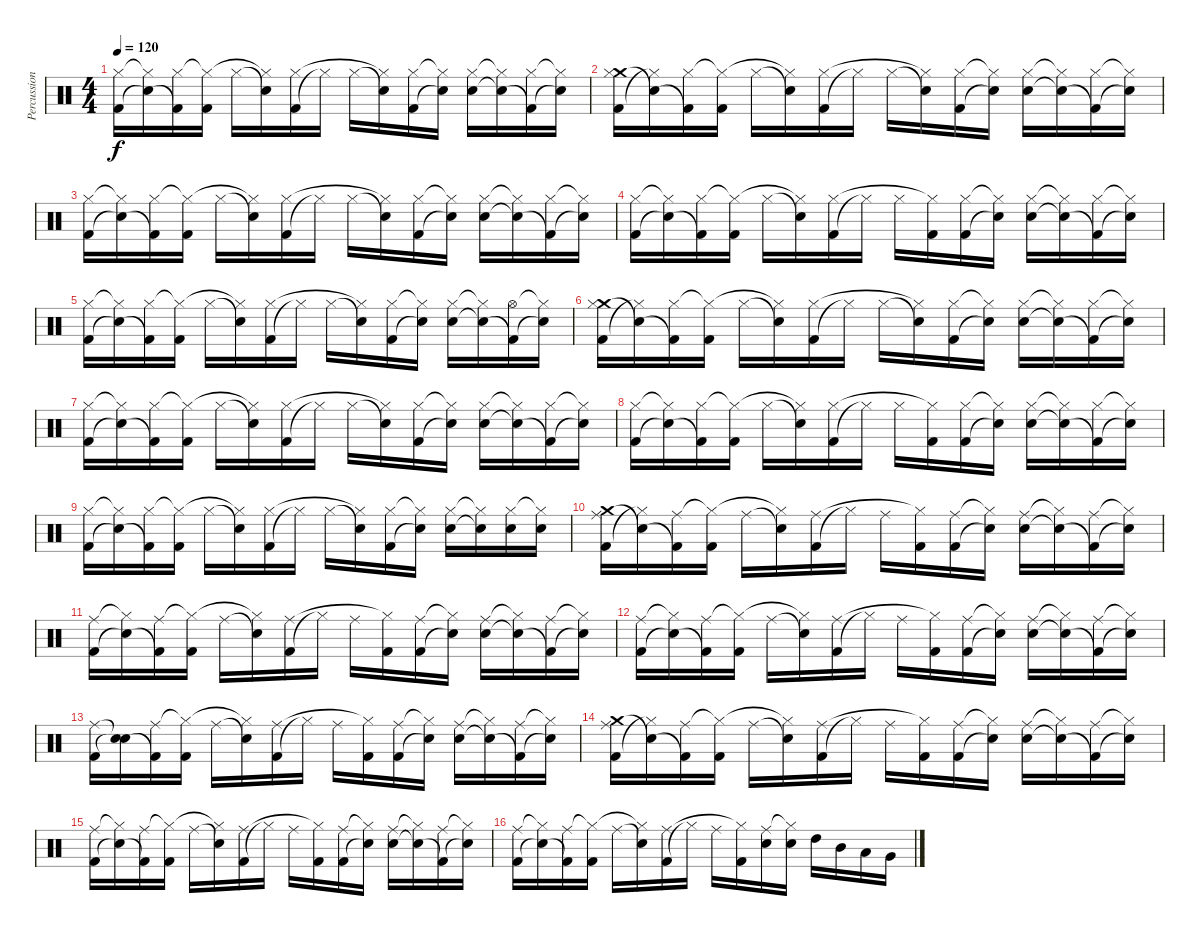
\track ("Percussions" "Percussion") {instrument percussion}
\staff {score}
\articulation defaults
\ts (4 4)
\tempo 120
\clef neutral
\ks c
("Kick (hit) 2" "Hi-Hat (closed)").16{dy f} ("Snare (hit)"{t} "Hi-Hat (closed)"{t}).16 ("Kick (hit) 2"{t} "Hi-Hat (closed)").16 ("Kick (hit) 2" "Hi-Hat (closed)"{t}).16 "Hi-Hat (closed)".16 ("Snare (hit)"{t} "Hi-Hat (closed)"{t}).16 ("Kick (hit) 2" "Hi-Hat (closed)").16 "Hi-Hat (closed)"{t}.16 "Hi-Hat (closed)".16 ("Snare (hit)"{t} "Hi-Hat (closed)"{t}).16 ("Kick (hit) 2" "Hi-Hat (closed)").16 ("Snare (hit)"{t} "Hi-Hat (closed)"{t}).16 ("Electric Snare (hit)" "Hi-Hat (closed)").16 ("Snare (hit)"{t} "Hi-Hat (closed)"{t}).16 ("Kick (hit) 2"{t} "Hi-Hat (closed)").16 ("Snare (hit)"{t} "Hi-Hat (closed)"{t}).16 |
("Crash medium (hit)" "Kick (hit) 2" "Hi-Hat (closed)").16 ("Snare (hit)"{t} "Hi-Hat (closed)"{t}).16 ("Kick (hit) 2"{t} "Hi-Hat (closed)").16 ("Kick (hit) 2" "Hi-Hat (closed)"{t}).16 "Hi-Hat (closed)".16 ("Snare (hit)"{t} "Hi-Hat (closed)"{t}).16 ("Kick (hit) 2" "Hi-Hat (closed)").16 "Hi-Hat (closed)"{t}.16 "Hi-Hat (closed)".16 ("Snare (hit)"{t} "Hi-Hat (closed)"{t}).16 ("Kick (hit) 2" "Hi-Hat (closed)").16 ("Snare (hit)"{t} "Hi-Hat (closed)"{t}).16 ("Electric Snare (hit)" "Hi-Hat (closed)").16 ("Snare (hit)"{t} "Hi-Hat (closed)"{t}).16 ("Kick (hit) 2"{t} "Hi-Hat (closed)").16 ("Snare (hit)"{t} "Hi-Hat (closed)"{t}).16 |
("Kick (hit) 2" "Hi-Hat (closed)").16 ("Snare (hit)"{t} "Hi-Hat (closed)"{t}).16 ("Kick (hit) 2"{t} "Hi-Hat (closed)").16 ("Kick (hit) 2" "Hi-Hat (closed)"{t}).16 "Hi-Hat (closed)".16 ("Snare (hit)"{t} "Hi-Hat (closed)"{t}).16 ("Kick (hit) 2" "Hi-Hat (closed)").16 "Hi-Hat (closed)"{t}.16 "Hi-Hat (closed)".16 ("Snare (hit)"{t} "Hi-Hat (closed)"{t}).16 ("Kick (hit) 2" "Hi-Hat (closed)").16 ("Snare (hit)"{t} "Hi-Hat (closed)"{t}).16 ("Electric Snare (hit)" "Hi-Hat (closed)").16 ("Snare (hit)"{t} "Hi-Hat (closed)"{t}).16 ("Kick (hit) 2"{t} "Hi-Hat (closed)").16 ("Snare (hit)"{t} "Hi-Hat (closed)"{t}).16 |
("Kick (hit) 2" "Hi-Hat (closed)").16 ("Snare (hit)"{t} "Hi-Hat (closed)"{t}).16 ("Kick (hit) 2"{t} "Hi-Hat (closed)").16 ("Kick (hit) 2" "Hi-Hat (closed)"{t}).16 "Hi-Hat (closed)".16 ("Snare (hit)"{t} "Hi-Hat (closed)"{t}).16 ("Kick (hit) 2" "Hi-Hat (closed)").16 "Hi-Hat (closed)"{t}.16 "Hi-Hat (closed)".16 ("Kick (hit) 2" "Hi-Hat (closed)"{t}).16 ("Kick (hit) 2" "Hi-Hat (closed)").16 ("Snare (hit)"{t} "Hi-Hat (closed)"{t}).16 ("Electric Snare (hit)" "Hi-Hat (closed)").16 ("Snare (hit)"{t} "Hi-Hat (closed)"{t}).16 ("Kick (hit) 2"{t} "Hi-Hat (closed)").16 ("Snare (hit)"{t} "Hi-Hat (closed)"{t}).16 |
("Kick (hit) 2" "Hi-Hat (closed)").16 ("Snare (hit)"{t} "Hi-Hat (closed)"{t}).16 ("Kick (hit) 2"{t} "Hi-Hat (closed)").16 ("Kick (hit) 2" "Hi-Hat (closed)"{t}).16 "Hi-Hat (closed)".16 ("Snare (hit)"{t} "Hi-Hat (closed)"{t}).16 ("Kick (hit) 2" "Hi-Hat (closed)").16 "Hi-Hat (closed)"{t}.16 "Hi-Hat (closed)".16 ("Snare (hit)"{t} "Hi-Hat (closed)"{t}).16 ("Kick (hit) 2" "Hi-Hat (closed)").16 ("Snare (hit)"{t} "Hi-Hat (closed)"{t}).16 ("Electric Snare (hit)" "Hi-Hat (closed)").16 ("Snare (hit)"{t} "Hi-Hat (closed)"{t}).16 ("Kick (hit) 2"{t} "Hi-Hat (open)").16 ("Snare (hit)"{t} "Hi-Hat (closed)"{t}).16 |
("Crash medium (hit)" "Kick (hit) 2" "Hi-Hat (closed)").16 ("Snare (hit)"{t} "Hi-Hat (closed)"{t}).16 ("Kick (hit) 2"{t} "Hi-Hat (closed)").16 ("Kick (hit) 2" "Hi-Hat (closed)"{t}).16 "Hi-Hat (closed)".16 ("Snare (hit)"{t} "Hi-Hat (closed)"{t}).16 ("Kick (hit) 2" "Hi-Hat (closed)").16 "Hi-Hat (closed)"{t}.16 "Hi-Hat (closed)".16 ("Snare (hit)"{t} "Hi-Hat (closed)"{t}).16 ("Kick (hit) 2" "Hi-Hat (closed)").16 ("Snare (hit)"{t} "Hi-Hat (closed)"{t}).16 ("Electric Snare (hit)" "Hi-Hat (closed)").16 ("Snare (hit)"{t} "Hi-Hat (closed)"{t}).16 ("Kick (hit) 2"{t} "Hi-Hat (closed)").16 ("Snare (hit)"{t} "Hi-Hat (closed)"{t}).16 |
("Kick (hit) 2" "Hi-Hat (closed)").16 ("Snare (hit)"{t} "Hi-Hat (closed)"{t}).16 ("Kick (hit) 2"{t} "Hi-Hat (closed)").16 ("Kick (hit) 2" "Hi-Hat (closed)"{t}).16 "Hi-Hat (closed)".16 ("Snare (hit)"{t} "Hi-Hat (closed)"{t}).16 ("Kick (hit) 2" "Hi-Hat (closed)").16 "Hi-Hat (closed)"{t}.16 "Hi-Hat (closed)".16 ("Snare (hit)"{t} "Hi-Hat (closed)"{t}).16 ("Kick (hit) 2" "Hi-Hat (closed)").16 ("Snare (hit)"{t} "Hi-Hat (closed)"{t}).16 ("Electric Snare (hit)" "Hi-Hat (closed)").16 ("Snare (hit)"{t} "Hi-Hat (closed)"{t}).16 ("Kick (hit) 2"{t} "Hi-Hat (closed)").16 ("Snare (hit)"{t} "Hi-Hat (closed)"{t}).16 |
("Kick (hit) 2" "Hi-Hat (closed)").16 ("Snare (hit)"{t} "Hi-Hat (closed)"{t}).16 ("Kick (hit) 2"{t} "Hi-Hat (closed)").16 ("Kick (hit) 2" "Hi-Hat (closed)"{t}).16 "Hi-Hat (closed)".16 ("Snare (hit)"{t} "Hi-Hat (closed)"{t}).16 ("Kick (hit) 2" "Hi-Hat (closed)").16 "Hi-Hat (closed)"{t}.16 "Hi-Hat (closed)".16 ("Kick (hit) 2" "Hi-Hat (closed)"{t}).16 ("Kick (hit) 2" "Hi-Hat (closed)").16 ("Snare (hit)"{t} "Hi-Hat (closed)"{t}).16 ("Electric Snare (hit)" "Hi-Hat (closed)").16 ("Snare (hit)"{t} "Hi-Hat (closed)"{t}).16 ("Kick (hit) 2"{t} "Hi-Hat (closed)").16 ("Snare (hit)"{t} "Hi-Hat (closed)"{t}).16 |
("Kick (hit) 2" "Hi-Hat (closed)").16 ("Snare (hit)"{t} "Hi-Hat (closed)"{t}).16 ("Kick (hit) 2"{t} "Hi-Hat (closed)").16 ("Kick (hit) 2" "Hi-Hat (closed)"{t}).16 "Hi-Hat (closed)".16 ("Snare (hit)"{t} "Hi-Hat (closed)"{t}).16 ("Kick (hit) 2" "Hi-Hat (closed)").16 "Hi-Hat (closed)"{t}.16 "Hi-Hat (closed)".16 ("Snare (hit)"{t} "Hi-Hat (closed)"{t}).16 ("Kick (hit) 2" "Hi-Hat (closed)").16 ("Snare (hit)"{t} "Hi-Hat (closed)"{t}).16 ("Electric Snare (hit)" "Hi-Hat (closed)").16 ("Snare (hit)"{t} "Hi-Hat (closed)"{t}).16 ("Electric Snare (hit)" "Hi-Hat (closed)").16 ("Electric Snare (hit)" "Hi-Hat (closed)"{t}).16 |
("Crash medium (hit)" "Kick (hit) 2" "Ride (middle)").16 ("Snare (hit)"{t} "Hi-Hat (closed)"{t}).16 ("Kick (hit) 2"{t} "Ride (middle)").16 ("Kick (hit) 2" "Hi-Hat (closed)"{t}).16 "Ride (middle)".16 ("Snare (hit)"{t} "Hi-Hat (closed)"{t}).16 ("Kick (hit) 2" "Ride (middle)").16 "Hi-Hat (closed)"{t}.16 "Ride (middle)".16 ("Kick (hit) 2" "Hi-Hat (closed)"{t}).16 ("Kick (hit) 2" "Ride (middle)").16 ("Snare (hit)"{t} "Hi-Hat (closed)"{t}).16 ("Electric Snare (hit)" "Ride (middle)").16 ("Snare (hit)"{t} "Hi-Hat (closed)"{t}).16 ("Kick (hit) 2"{t} "Ride (middle)").16 ("Snare (hit)"{t} "Hi-Hat (closed)"{t}).16 |
("Kick (hit) 2" "Ride (middle)").16 ("Snare (hit)"{t} "Hi-Hat (closed)"{t}).16 ("Kick (hit) 2"{t} "Ride (middle)").16 ("Kick (hit) 2" "Hi-Hat (closed)"{t}).16 "Ride (middle)".16 ("Snare (hit)"{t} "Hi-Hat (closed)"{t}).16 ("Kick (hit) 2" "Ride (middle)").16 "Hi-Hat (closed)"{t}.16 "Ride (middle)".16 ("Kick (hit) 2" "Hi-Hat (closed)"{t}).16 ("Kick (hit) 2" "Ride (middle)").16 ("Snare (hit)"{t} "Hi-Hat (closed)"{t}).16 ("Electric Snare (hit)" "Ride (middle)").16 ("Snare (hit)"{t} "Hi-Hat (closed)"{t}).16 ("Kick (hit) 2"{t} "Ride (middle)").16 ("Snare (hit)"{t} "Hi-Hat (closed)"{t}).16 |
("Kick (hit) 2" "Ride (middle)").16 ("Snare (hit)"{t} "Hi-Hat (closed)"{t}).16 ("Kick (hit) 2"{t} "Ride (middle)").16 ("Kick (hit) 2" "Hi-Hat (closed)"{t}).16 "Ride (middle)".16 ("Snare (hit)"{t} "Hi-Hat (closed)"{t}).16 ("Kick (hit) 2" "Ride (middle)").16 "Hi-Hat (closed)"{t}.16 "Ride (middle)".16 ("Kick (hit) 2" "Hi-Hat (closed)"{t}).16 ("Kick (hit) 2" "Ride (middle)").16 ("Snare (hit)"{t} "Hi-Hat (closed)"{t}).16 ("Electric Snare (hit)" "Ride (middle)").16 ("Snare (hit)"{t} "Hi-Hat (closed)"{t}).16 ("Kick (hit) 2"{t} "Ride (middle)").16 ("Snare (hit)"{t} "Hi-Hat (closed)"{t}).16 |
("Kick (hit) 2" "Ride (middle)").16 ("Snare (hit)"{t} "Snare (hit)"{t}).16 ("Kick (hit) 2"{t} "Ride (middle)").16 ("Kick (hit) 2" "Hi-Hat (closed)"{t}).16 "Ride (middle)".16 ("Snare (hit)"{t} "Hi-Hat (closed)"{t}).16 ("Kick (hit) 2" "Ride (middle)").16 "Hi-Hat (closed)"{t}.16 "Ride (middle)".16 ("Kick (hit) 2" "Hi-Hat (closed)"{t}).16 ("Kick (hit) 2" "Ride (middle)").16 ("Snare (hit)"{t} "Hi-Hat (closed)"{t}).16 ("Electric Snare (hit)" "Ride (middle)").16 ("Snare (hit)"{t} "Hi-Hat (closed)"{t}).16 ("Kick (hit) 2"{t} "Ride (middle)").16 ("Snare (hit)"{t} "Hi-Hat (closed)"{t}).16 |
("Crash medium (hit)" "Kick (hit) 2" "Ride (middle)").16 ("Snare (hit)"{t} "Hi-Hat (closed)"{t}).16 ("Kick (hit) 2"{t} "Ride (middle)").16 ("Kick (hit) 2" "Hi-Hat (closed)"{t}).16 "Ride (middle)".16 ("Snare (hit)"{t} "Hi-Hat (closed)"{t}).16 ("Kick (hit) 2" "Ride (middle)").16 "Hi-Hat (closed)"{t}.16 "Ride (middle)".16 ("Kick (hit) 2" "Hi-Hat (closed)"{t}).16 ("Kick (hit) 2" "Ride (middle)").16 ("Snare (hit)"{t} "Hi-Hat (closed)"{t}).16 ("Electric Snare (hit)" "Ride (middle)").16 ("Snare (hit)"{t} "Hi-Hat (closed)"{t}).16 ("Kick (hit) 2"{t} "Ride (middle)").16 ("Snare (hit)"{t} "Hi-Hat (closed)"{t}).16 |
("Kick (hit) 2" "Ride (middle)").16 ("Snare (hit)"{t} "Hi-Hat (closed)"{t}).16 ("Kick (hit) 2"{t} "Ride (middle)").16 ("Kick (hit) 2" "Hi-Hat (closed)"{t}).16 "Ride (middle)".16 ("Snare (hit)"{t} "Hi-Hat (closed)"{t}).16 ("Kick (hit) 2" "Ride (middle)").16 "Hi-Hat (closed)"{t}.16 "Ride (middle)".16 ("Kick (hit) 2" "Hi-Hat (closed)"{t}).16 ("Kick (hit) 2" "Ride (middle)").16 ("Snare (hit)"{t} "Hi-Hat (closed)"{t}).16 ("Electric Snare (hit)" "Ride (middle)").16 ("Snare (hit)"{t} "Hi-Hat (closed)"{t}).16 ("Kick (hit) 2"{t} "Ride (middle)").16 ("Snare (hit)"{t} "Hi-Hat (closed)"{t}).16 |
("Kick (hit) 2" "Ride (middle)").16 ("Snare (hit)"{t} "Hi-Hat (closed)"{t}).16 ("Kick (hit) 2"{t} "Ride (middle)").16 ("Kick (hit) 2" "Hi-Hat (closed)"{t}).16 "Ride (middle)".16 ("Snare (hit)"{t} "Hi-Hat (closed)"{t}).16 ("Kick (hit) 2" "Ride (middle)").16 "Hi-Hat (closed)"{t}.16 "Ride (middle)".16 ("Kick (hit) 2" "Hi-Hat (closed)"{t}).16 ("Electric Snare (hit)" "Ride (middle)").16 ("Electric Snare (hit)" "Hi-Hat (closed)"{t}).16 "High Tom (hit)".16 "Mid Tom (hit)".16 "Low Tom (hit)".16 "Very Low Tom (hit)".16
